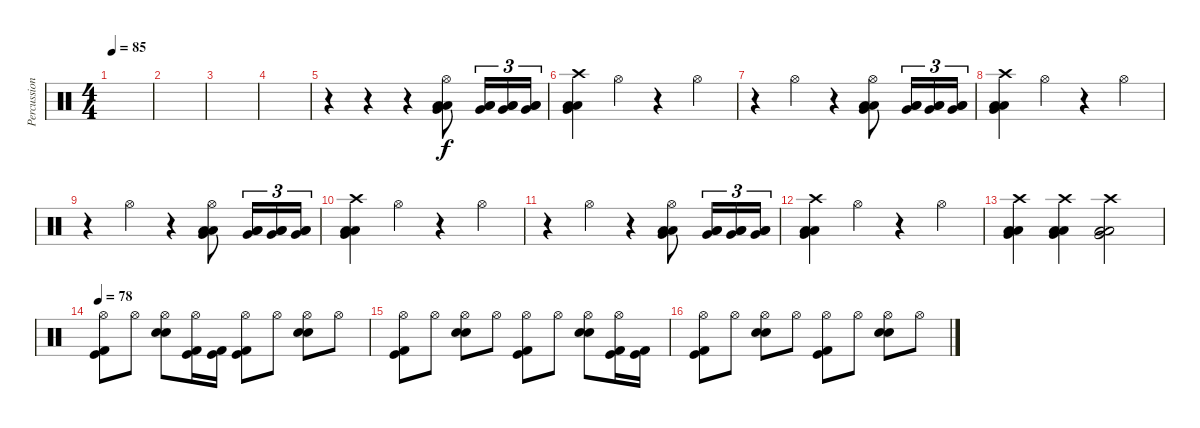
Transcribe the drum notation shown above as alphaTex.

\track ("Percussions" "Percussion") {instrument percussion}
\staff {score}
\articulation defaults
\ts (4 4)
\tempo 85
\clef neutral
\ks c
|
|
|
|
r.4 r.4 r.4 ("Hi-Hat (open)" "Very Low Tom (hit)" "Low Floor Tom (hit)" "Low Tom (hit)").8 ("Very Low Tom (hit)" "Low Floor Tom (hit)" "Low Tom (hit)").16{tu (3 2)} ("Very Low Tom (hit)" "Low Floor Tom (hit)" "Low Tom (hit)").16{tu (3 2)} ("Very Low Tom (hit)" "Low Floor Tom (hit)" "Low Tom (hit)").16{tu (3 2)} |
("Crash high (hit)" "Very Low Tom (hit)" "Low Floor Tom (hit)" "Low Tom (hit)").4 "Hi-Hat (open)".4 r.4 "Hi-Hat (open)".4 |
r.4 "Hi-Hat (open)".4 r.4 ("Hi-Hat (open)" "Very Low Tom (hit)" "Low Floor Tom (hit)" "Low Tom (hit)").8 ("Very Low Tom (hit)" "Low Floor Tom (hit)" "Low Tom (hit)").16{tu (3 2)} ("Very Low Tom (hit)" "Low Floor Tom (hit)" "Low Tom (hit)").16{tu (3 2)} ("Very Low Tom (hit)" "Low Floor Tom (hit)" "Low Tom (hit)").16{tu (3 2)} |
("Crash high (hit)" "Very Low Tom (hit)" "Low Floor Tom (hit)" "Low Tom (hit)").4 "Hi-Hat (open)".4 r.4 "Hi-Hat (open)".4 |
r.4 "Hi-Hat (open)".4 r.4 ("Hi-Hat (open)" "Very Low Tom (hit)" "Low Floor Tom (hit)" "Low Tom (hit)").8 ("Very Low Tom (hit)" "Low Floor Tom (hit)" "Low Tom (hit)").16{tu (3 2)} ("Very Low Tom (hit)" "Low Floor Tom (hit)" "Low Tom (hit)").16{tu (3 2)} ("Very Low Tom (hit)" "Low Floor Tom (hit)" "Low Tom (hit)").16{tu (3 2)} |
("Crash high (hit)" "Very Low Tom (hit)" "Low Floor Tom (hit)" "Low Tom (hit)").4 "Hi-Hat (open)".4 r.4 "Hi-Hat (open)".4 |
r.4 "Hi-Hat (open)".4 r.4 ("Hi-Hat (open)" "Very Low Tom (hit)" "Low Floor Tom (hit)" "Low Tom (hit)").8 ("Very Low Tom (hit)" "Low Floor Tom (hit)" "Low Tom (hit)").16{tu (3 2)} ("Very Low Tom (hit)" "Low Floor Tom (hit)" "Low Tom (hit)").16{tu (3 2)} ("Very Low Tom (hit)" "Low Floor Tom (hit)" "Low Tom (hit)").16{tu (3 2)} |
("Crash high (hit)" "Very Low Tom (hit)" "Low Floor Tom (hit)" "Low Tom (hit)").4 "Hi-Hat (open)".4 r.4 "Hi-Hat (open)".4 |
("Crash high (hit)" "Very Low Tom (hit)" "Low Floor Tom (hit)" "Low Tom (hit)").4 ("Crash high (hit)" "Very Low Tom (hit)" "Low Floor Tom (hit)" "Low Tom (hit)").4 ("Crash high (hit)" "Very Low Tom (hit)" "Low Floor Tom (hit)" "Low Tom (hit)").2 |
\tempo 78
("Hi-Hat (open)" "Kick (hit) 2" "Kick (hit)").8 "Hi-Hat (open)".8 ("Hi-Hat (open)" "Snare (hit) 2" "Electric Snare (hit)").8 ("Hi-Hat (open)" "Kick (hit) 2" "Kick (hit)").16 ("Kick (hit) 2" "Kick (hit)").16 ("Hi-Hat (open)" "Kick (hit) 2" "Kick (hit)").8 "Hi-Hat (open)".8 ("Hi-Hat (open)" "Snare (hit) 2" "Electric Snare (hit)").8 "Hi-Hat (open)".8 |
("Hi-Hat (open)" "Kick (hit) 2" "Kick (hit)").8 "Hi-Hat (open)".8 ("Hi-Hat (open)" "Snare (hit) 2" "Electric Snare (hit)").8 "Hi-Hat (open)".8 ("Hi-Hat (open)" "Kick (hit) 2" "Kick (hit)").8 "Hi-Hat (open)".8 ("Hi-Hat (open)" "Snare (hit) 2" "Electric Snare (hit)").8 ("Hi-Hat (open)" "Kick (hit) 2" "Kick (hit)").16 ("Kick (hit) 2" "Kick (hit)").16 |
("Hi-Hat (open)" "Kick (hit) 2" "Kick (hit)").8 "Hi-Hat (open)".8 ("Hi-Hat (open)" "Snare (hit) 2" "Electric Snare (hit)").8 "Hi-Hat (open)".8 ("Hi-Hat (open)" "Kick (hit) 2" "Kick (hit)").8 "Hi-Hat (open)".8 ("Hi-Hat (open)" "Snare (hit) 2" "Electric Snare (hit)").8 "Hi-Hat (open)".8
